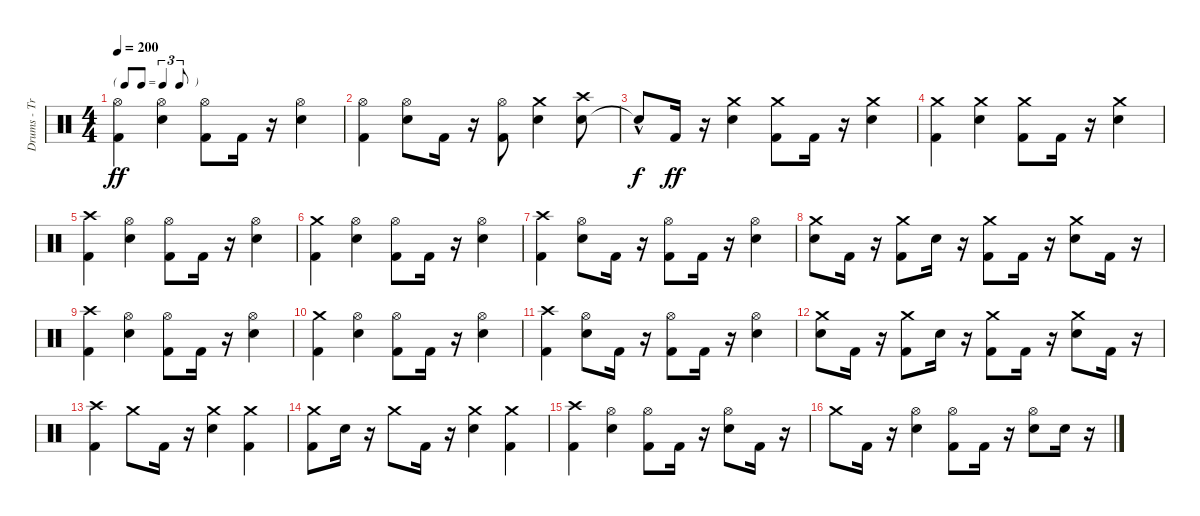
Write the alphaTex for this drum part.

\track ("Drums - Travis" "Drums - Tr") {instrument percussion}
\staff {score}
\articulation defaults
\ts (4 4)
\tf triplet8th
\tempo 200
\clef neutral
\ks c
("Kick (hit) 2" "Hi-Hat (open)").4{dy ff} ("Electric Snare (hit)" "Hi-Hat (open)").4 ("Kick (hit) 2" "Hi-Hat (open)").8 "Kick (hit) 2".16 r.16 ("Electric Snare (hit)" "Hi-Hat (open)").4 |
("Kick (hit) 2" "Hi-Hat (open)").4 ("Electric Snare (hit)" "Hi-Hat (open)").8 "Kick (hit) 2".16 r.16 ("Kick (hit) 2" "Hi-Hat (open)").8 ("Electric Snare (hit)" "Crash medium (hit)").4 ("Electric Snare (hit)" "Crash high (hit)").8 |
"Snare (hit)"{hac t}.8{dy f} "Kick (hit) 2".16{dy ff} r.16 ("Electric Snare (hit)" "Crash medium (hit)").4 ("Kick (hit) 2" "Crash medium (hit)").8 "Kick (hit) 2".16 r.16 ("Electric Snare (hit)" "Crash medium (hit)").4 |
("Kick (hit) 2" "Crash medium (hit)").4 ("Electric Snare (hit)" "Crash medium (hit)").4 ("Kick (hit) 2" "Crash medium (hit)").8 "Kick (hit) 2".16 r.16 ("Electric Snare (hit)" "Crash medium (hit)").4 |
("Kick (hit) 2" "Crash high (hit)").4 ("Electric Snare (hit)" "Hi-Hat (open)").4 ("Kick (hit) 2" "Hi-Hat (open)").8 "Kick (hit) 2".16 r.16 ("Electric Snare (hit)" "Hi-Hat (open)").4 |
("Kick (hit) 2" "Crash medium (hit)").4 ("Electric Snare (hit)" "Hi-Hat (open)").4 ("Kick (hit) 2" "Hi-Hat (open)").8 "Kick (hit) 2".16 r.16 ("Electric Snare (hit)" "Hi-Hat (open)").4 |
("Kick (hit) 2" "Crash high (hit)").4 ("Electric Snare (hit)" "Hi-Hat (open)").8 "Kick (hit) 2".16 r.16 ("Kick (hit) 2" "Hi-Hat (open)").8 "Kick (hit) 2".16 r.16 ("Electric Snare (hit)" "Hi-Hat (open)").4 |
("Electric Snare (hit)" "Crash medium (hit)").8 "Kick (hit) 2".16 r.16 ("Kick (hit) 2" "Crash medium (hit)").8 "Electric Snare (hit)".16 r.16 ("Kick (hit) 2" "Crash medium (hit)").8 "Kick (hit) 2".16 r.16 ("Electric Snare (hit)" "Crash medium (hit)").8 "Kick (hit) 2".16 r.16 |
("Kick (hit) 2" "Crash high (hit)").4 ("Electric Snare (hit)" "Hi-Hat (open)").4 ("Kick (hit) 2" "Hi-Hat (open)").8 "Kick (hit) 2".16 r.16 ("Electric Snare (hit)" "Hi-Hat (open)").4 |
("Kick (hit) 2" "Crash medium (hit)").4 ("Electric Snare (hit)" "Hi-Hat (open)").4 ("Kick (hit) 2" "Hi-Hat (open)").8 "Kick (hit) 2".16 r.16 ("Electric Snare (hit)" "Hi-Hat (open)").4 |
("Kick (hit) 2" "Crash high (hit)").4 ("Electric Snare (hit)" "Hi-Hat (open)").8 "Kick (hit) 2".16 r.16 ("Kick (hit) 2" "Hi-Hat (open)").8 "Kick (hit) 2".16 r.16 ("Electric Snare (hit)" "Hi-Hat (open)").4 |
("Electric Snare (hit)" "Crash medium (hit)").8 "Kick (hit) 2".16 r.16 ("Kick (hit) 2" "Crash medium (hit)").8 "Electric Snare (hit)".16 r.16 ("Kick (hit) 2" "Crash medium (hit)").8 "Kick (hit) 2".16 r.16 ("Electric Snare (hit)" "Crash medium (hit)").8 "Kick (hit) 2".16 r.16 |
("Crash high (hit)" "Kick (hit) 2").4 "Crash medium (hit)".8 "Kick (hit) 2".16 r.16 ("Crash medium (hit)" "Electric Snare (hit)").4 ("Crash medium (hit)" "Kick (hit) 2").4 |
("Crash medium (hit)" "Kick (hit) 2").8 "Electric Snare (hit)".16 r.16 "Crash medium (hit)".8 "Kick (hit) 2".16 r.16 ("Crash medium (hit)" "Electric Snare (hit)").4 ("Crash medium (hit)" "Kick (hit) 2").4 |
("Crash high (hit)" "Kick (hit) 2").4 ("Hi-Hat (open)" "Electric Snare (hit)").4 ("Hi-Hat (open)" "Kick (hit) 2").8 "Kick (hit) 2".16 r.16 ("Hi-Hat (open)" "Electric Snare (hit)").8 "Kick (hit) 2".16 r.16 |
"Crash medium (hit)".8 "Kick (hit) 2".16 r.16 ("Hi-Hat (open)" "Electric Snare (hit)").4 ("Hi-Hat (open)" "Kick (hit) 2").8 "Kick (hit) 2".16 r.16 ("Hi-Hat (open)" "Electric Snare (hit)").8 "Electric Snare (hit)".16 r.16
